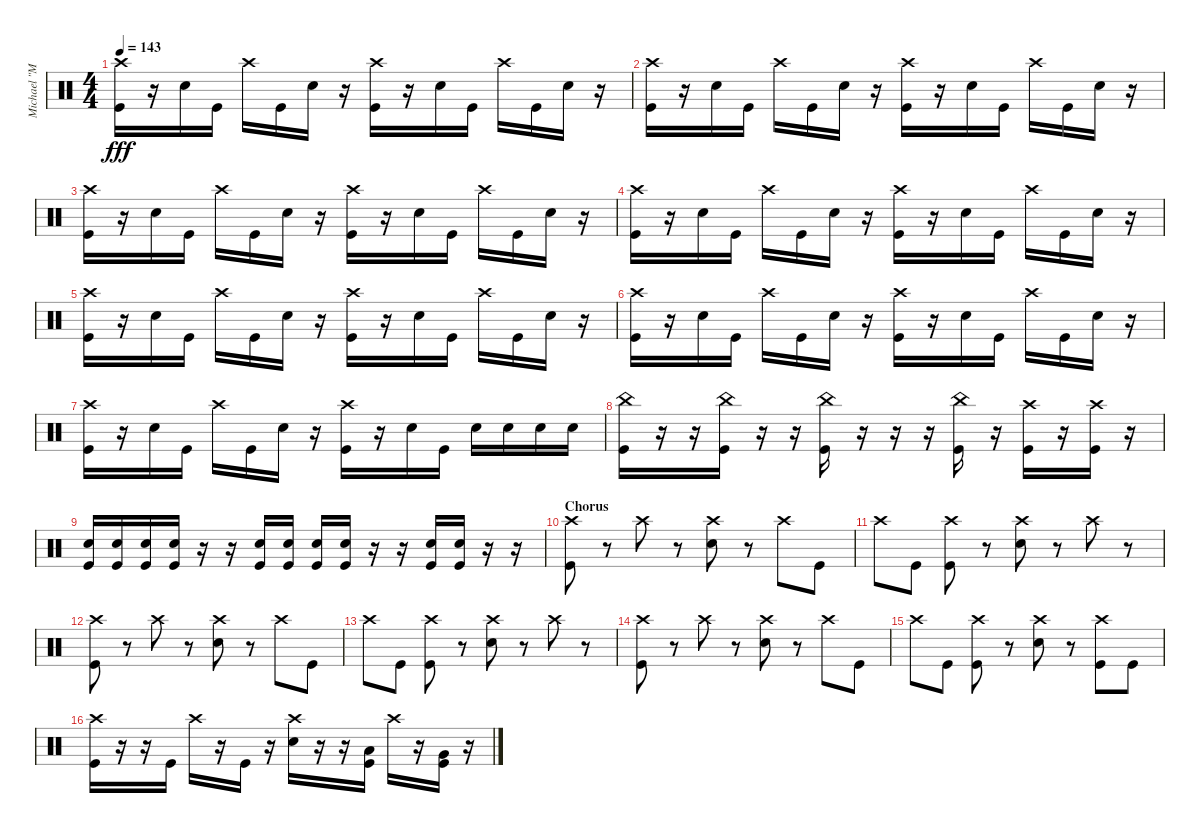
\track ("Michael \"Moose\" Thomas" "Michael \"M") {instrument percussion}
\staff {score}
\articulation defaults
\ts (4 4)
\tempo 143
\clef neutral
\ks c
("Kick (hit)" "Crash high (hit)").16{dy fff} r.16 "Snare (hit) 2".16 "Kick (hit)".16 "Crash high (hit)".16 "Kick (hit)".16 "Snare (hit) 2".16 r.16 ("Kick (hit)" "Crash high (hit)").16 r.16 "Snare (hit) 2".16 "Kick (hit)".16 "Crash high (hit)".16 "Kick (hit)".16 "Snare (hit) 2".16 r.16 |
("Kick (hit)" "Crash high (hit)").16 r.16 "Snare (hit) 2".16 "Kick (hit)".16 "Crash high (hit)".16 "Kick (hit)".16 "Snare (hit) 2".16 r.16 ("Kick (hit)" "Crash high (hit)").16 r.16 "Snare (hit) 2".16 "Kick (hit)".16 "Crash high (hit)".16 "Kick (hit)".16 "Snare (hit) 2".16 r.16 |
("Kick (hit)" "Crash high (hit)").16 r.16 "Snare (hit) 2".16 "Kick (hit)".16 "Crash high (hit)".16 "Kick (hit)".16 "Snare (hit) 2".16 r.16 ("Kick (hit)" "Crash high (hit)").16 r.16 "Snare (hit) 2".16 "Kick (hit)".16 "Crash high (hit)".16 "Kick (hit)".16 "Snare (hit) 2".16 r.16 |
("Kick (hit)" "Crash high (hit)").16 r.16 "Snare (hit) 2".16 "Kick (hit)".16 "Crash high (hit)".16 "Kick (hit)".16 "Snare (hit) 2".16 r.16 ("Kick (hit)" "Crash high (hit)").16 r.16 "Snare (hit) 2".16 "Kick (hit)".16 "Crash high (hit)".16 "Kick (hit)".16 "Snare (hit) 2".16 r.16 |
("Kick (hit)" "Crash high (hit)").16 r.16 "Snare (hit) 2".16 "Kick (hit)".16 "Crash high (hit)".16 "Kick (hit)".16 "Snare (hit) 2".16 r.16 ("Kick (hit)" "Crash high (hit)").16 r.16 "Snare (hit) 2".16 "Kick (hit)".16 "Crash high (hit)".16 "Kick (hit)".16 "Snare (hit) 2".16 r.16 |
("Kick (hit)" "Crash high (hit)").16 r.16 "Snare (hit) 2".16 "Kick (hit)".16 "Crash high (hit)".16 "Kick (hit)".16 "Snare (hit) 2".16 r.16 ("Kick (hit)" "Crash high (hit)").16 r.16 "Snare (hit) 2".16 "Kick (hit)".16 "Crash high (hit)".16 "Kick (hit)".16 "Snare (hit) 2".16 r.16 |
("Kick (hit)" "Crash high (hit)").16 r.16 "Snare (hit) 2".16 "Kick (hit)".16 "Crash high (hit)".16 "Kick (hit)".16 "Snare (hit) 2".16 r.16 ("Kick (hit)" "Crash high (hit)").16 r.16 "Snare (hit) 2".16 "Kick (hit)".16 "Snare (hit) 2".16 "Snare (hit) 2".16 "Snare (hit) 2".16 "Snare (hit) 2".16 |
("Kick (hit)" "China (hit)").16 r.16 r.16 ("Kick (hit)" "China (hit)").16 r.16 r.16 ("Kick (hit)" "China (hit)").16 r.16 r.16 r.16 ("Kick (hit)" "China (hit)").16 r.16 ("Kick (hit)" "Crash high (hit)").16 r.16 ("Kick (hit)" "Crash high (hit)").16 r.16 |
("Kick (hit)" "Snare (hit) 2").16 ("Kick (hit)" "Snare (hit) 2").16 ("Kick (hit)" "Snare (hit) 2").16 ("Kick (hit)" "Snare (hit) 2").16 r.16 r.16 ("Kick (hit)" "Snare (hit) 2").16 ("Kick (hit)" "Snare (hit) 2").16 ("Kick (hit)" "Snare (hit) 2").16 ("Kick (hit)" "Snare (hit) 2").16 r.16 r.16 ("Kick (hit)" "Snare (hit) 2").16 ("Kick (hit)" "Snare (hit) 2").16 r.16 r.16 |
\section ("" "Chorus")
("Kick (hit)" "Crash high (hit)").8 r.8 "Crash high (hit)".8 r.8 ("Snare (hit) 2" "Crash high (hit)").8 r.8 "Crash high (hit)".8 "Kick (hit)".8 |
"Crash high (hit)".8 "Kick (hit)".8 ("Kick (hit)" "Crash high (hit)").8 r.8 ("Snare (hit) 2" "Crash high (hit)").8 r.8 "Crash high (hit)".8 r.8 |
("Kick (hit)" "Crash high (hit)").8 r.8 "Crash high (hit)".8 r.8 ("Snare (hit) 2" "Crash high (hit)").8 r.8 "Crash high (hit)".8 "Kick (hit)".8 |
"Crash high (hit)".8 "Kick (hit)".8 ("Kick (hit)" "Crash high (hit)").8 r.8 ("Snare (hit) 2" "Crash high (hit)").8 r.8 "Crash high (hit)".8 r.8 |
("Kick (hit)" "Crash high (hit)").8 r.8 "Crash high (hit)".8 r.8 ("Snare (hit) 2" "Crash high (hit)").8 r.8 "Crash high (hit)".8 "Kick (hit)".8 |
"Crash high (hit)".8 "Kick (hit)".8 ("Kick (hit)" "Crash high (hit)").8 r.8 ("Snare (hit) 2" "Crash high (hit)").8 r.8 ("Crash high (hit)" "Kick (hit)").8 "Kick (hit)".8 |
("Kick (hit)" "Crash high (hit)").16 r.16 r.16 "Kick (hit)".16 "Crash high (hit)".16 r.16 "Kick (hit)".16 r.16 ("Snare (hit) 2" "Crash high (hit)").16 r.16 r.16 ("Kick (hit)" "Low Tom (hit)").16 "Crash high (hit)".16 r.16 ("Kick (hit)" "Very Low Tom (hit)").16 r.16
